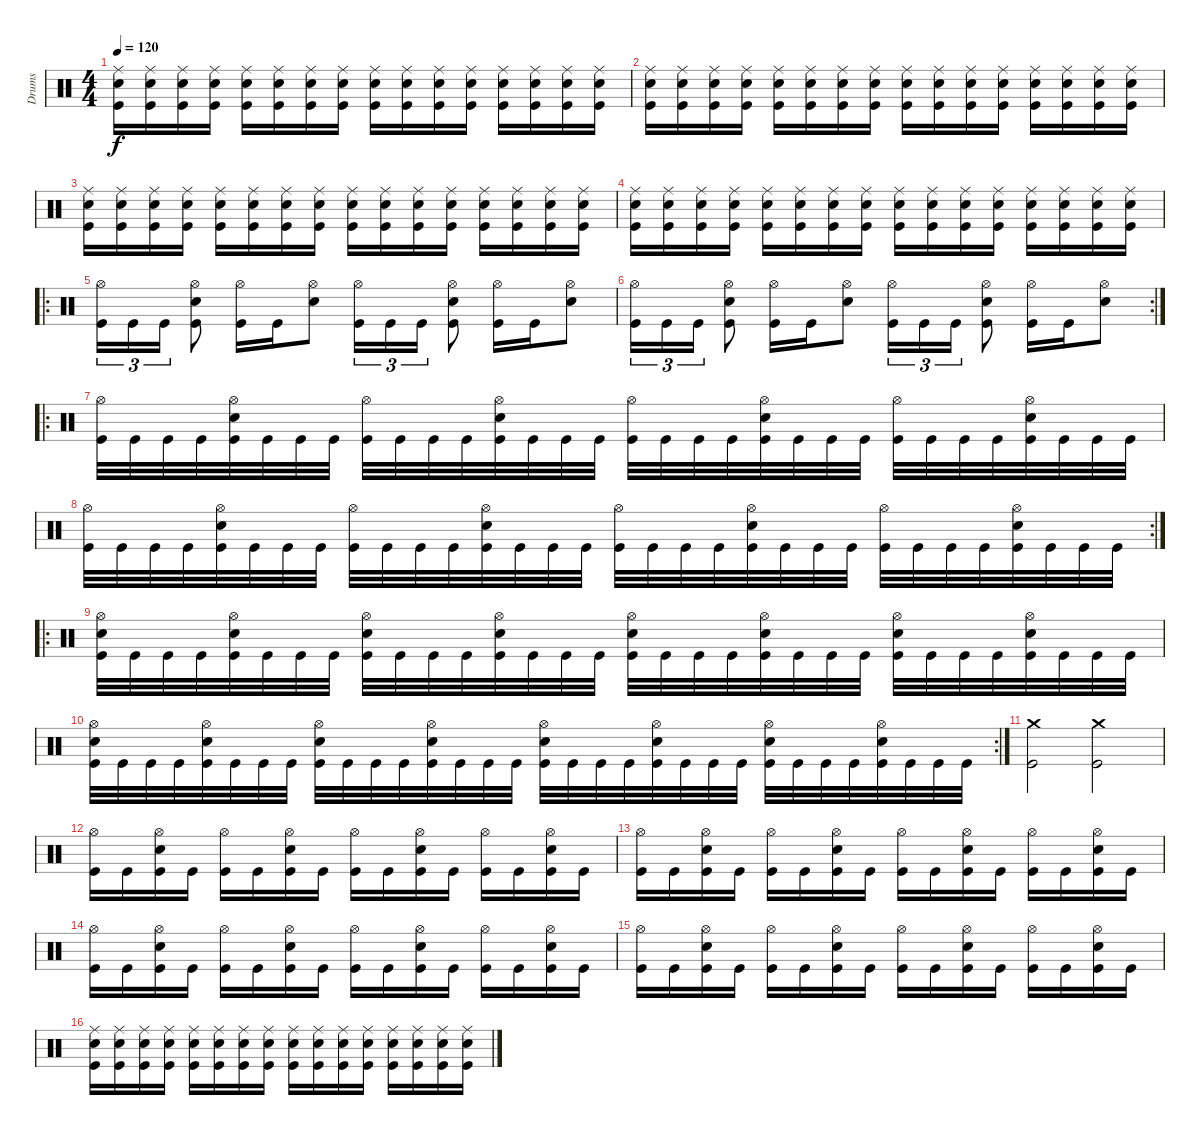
\track ("Drums" "Drums") {instrument percussion}
\staff {score}
\articulation defaults
\ts (4 4)
\tempo 120
\clef neutral
\ks c
("Ride (middle)" "Snare (hit) 2" "Kick (hit)").16{dy f} ("Ride (middle)" "Snare (hit) 2" "Kick (hit)").16 ("Ride (middle)" "Snare (hit) 2" "Kick (hit)").16 ("Ride (middle)" "Snare (hit) 2" "Kick (hit)").16 ("Ride (middle)" "Snare (hit) 2" "Kick (hit)").16 ("Ride (middle)" "Snare (hit) 2" "Kick (hit)").16 ("Ride (middle)" "Snare (hit) 2" "Kick (hit)").16 ("Ride (middle)" "Snare (hit) 2" "Kick (hit)").16 ("Ride (middle)" "Snare (hit) 2" "Kick (hit)").16 ("Ride (middle)" "Snare (hit) 2" "Kick (hit)").16 ("Ride (middle)" "Snare (hit) 2" "Kick (hit)").16 ("Ride (middle)" "Snare (hit) 2" "Kick (hit)").16 ("Ride (middle)" "Snare (hit) 2" "Kick (hit)").16 ("Ride (middle)" "Snare (hit) 2" "Kick (hit)").16 ("Ride (middle)" "Snare (hit) 2" "Kick (hit)").16 ("Ride (middle)" "Snare (hit) 2" "Kick (hit)").16 |
("Ride (middle)" "Snare (hit) 2" "Kick (hit)").16 ("Ride (middle)" "Snare (hit) 2" "Kick (hit)").16 ("Ride (middle)" "Snare (hit) 2" "Kick (hit)").16 ("Ride (middle)" "Snare (hit) 2" "Kick (hit)").16 ("Ride (middle)" "Snare (hit) 2" "Kick (hit)").16 ("Ride (middle)" "Snare (hit) 2" "Kick (hit)").16 ("Ride (middle)" "Snare (hit) 2" "Kick (hit)").16 ("Ride (middle)" "Snare (hit) 2" "Kick (hit)").16 ("Ride (middle)" "Snare (hit) 2" "Kick (hit)").16 ("Ride (middle)" "Snare (hit) 2" "Kick (hit)").16 ("Ride (middle)" "Snare (hit) 2" "Kick (hit)").16 ("Ride (middle)" "Snare (hit) 2" "Kick (hit)").16 ("Ride (middle)" "Snare (hit) 2" "Kick (hit)").16 ("Ride (middle)" "Snare (hit) 2" "Kick (hit)").16 ("Ride (middle)" "Snare (hit) 2" "Kick (hit)").16 ("Ride (middle)" "Snare (hit) 2" "Kick (hit)").16 |
("Ride (middle)" "Snare (hit) 2" "Kick (hit)").16 ("Ride (middle)" "Snare (hit) 2" "Kick (hit)").16 ("Ride (middle)" "Snare (hit) 2" "Kick (hit)").16 ("Ride (middle)" "Snare (hit) 2" "Kick (hit)").16 ("Ride (middle)" "Snare (hit) 2" "Kick (hit)").16 ("Ride (middle)" "Snare (hit) 2" "Kick (hit)").16 ("Ride (middle)" "Snare (hit) 2" "Kick (hit)").16 ("Ride (middle)" "Snare (hit) 2" "Kick (hit)").16 ("Ride (middle)" "Snare (hit) 2" "Kick (hit)").16 ("Ride (middle)" "Snare (hit) 2" "Kick (hit)").16 ("Ride (middle)" "Snare (hit) 2" "Kick (hit)").16 ("Ride (middle)" "Snare (hit) 2" "Kick (hit)").16 ("Ride (middle)" "Snare (hit) 2" "Kick (hit)").16 ("Ride (middle)" "Snare (hit) 2" "Kick (hit)").16 ("Ride (middle)" "Snare (hit) 2" "Kick (hit)").16 ("Ride (middle)" "Snare (hit) 2" "Kick (hit)").16 |
("Ride (middle)" "Snare (hit) 2" "Kick (hit)").16 ("Ride (middle)" "Snare (hit) 2" "Kick (hit)").16 ("Ride (middle)" "Snare (hit) 2" "Kick (hit)").16 ("Ride (middle)" "Snare (hit) 2" "Kick (hit)").16 ("Ride (middle)" "Snare (hit) 2" "Kick (hit)").16 ("Ride (middle)" "Snare (hit) 2" "Kick (hit)").16 ("Ride (middle)" "Snare (hit) 2" "Kick (hit)").16 ("Ride (middle)" "Snare (hit) 2" "Kick (hit)").16 ("Ride (middle)" "Snare (hit) 2" "Kick (hit)").16 ("Ride (middle)" "Snare (hit) 2" "Kick (hit)").16 ("Ride (middle)" "Snare (hit) 2" "Kick (hit)").16 ("Ride (middle)" "Snare (hit) 2" "Kick (hit)").16 ("Ride (middle)" "Snare (hit) 2" "Kick (hit)").16 ("Ride (middle)" "Snare (hit) 2" "Kick (hit)").16 ("Ride (middle)" "Snare (hit) 2" "Kick (hit)").16 ("Ride (middle)" "Snare (hit) 2" "Kick (hit)").16 |
\ro
("Hi-Hat (open)" "Kick (hit)").16{tu (3 2)} "Kick (hit)".16{tu (3 2)} "Kick (hit)".16{tu (3 2)} ("Hi-Hat (open)" "Snare (hit) 2" "Kick (hit)").8 ("Hi-Hat (open)" "Kick (hit)").16 "Kick (hit)".16 ("Hi-Hat (open)" "Snare (hit) 2").8 ("Hi-Hat (open)" "Kick (hit)").16{tu (3 2)} "Kick (hit)".16{tu (3 2)} "Kick (hit)".16{tu (3 2)} ("Hi-Hat (open)" "Snare (hit) 2" "Kick (hit)").8 ("Hi-Hat (open)" "Kick (hit)").16 "Kick (hit)".16 ("Hi-Hat (open)" "Snare (hit) 2").8 |
\rc 2
("Hi-Hat (open)" "Kick (hit)").16{tu (3 2)} "Kick (hit)".16{tu (3 2)} "Kick (hit)".16{tu (3 2)} ("Hi-Hat (open)" "Snare (hit) 2" "Kick (hit)").8 ("Hi-Hat (open)" "Kick (hit)").16 "Kick (hit)".16 ("Hi-Hat (open)" "Snare (hit) 2").8 ("Hi-Hat (open)" "Kick (hit)").16{tu (3 2)} "Kick (hit)".16{tu (3 2)} "Kick (hit)".16{tu (3 2)} ("Hi-Hat (open)" "Snare (hit) 2" "Kick (hit)").8 ("Hi-Hat (open)" "Kick (hit)").16 "Kick (hit)".16 ("Hi-Hat (open)" "Snare (hit) 2").8 |
\ro
("Hi-Hat (open)" "Kick (hit)").32 "Kick (hit)".32 "Kick (hit)".32 "Kick (hit)".32 ("Hi-Hat (open)" "Snare (hit) 2" "Kick (hit)").32 "Kick (hit)".32 "Kick (hit)".32 "Kick (hit)".32 ("Hi-Hat (open)" "Kick (hit)").32 "Kick (hit)".32 "Kick (hit)".32 "Kick (hit)".32 ("Hi-Hat (open)" "Snare (hit) 2" "Kick (hit)").32 "Kick (hit)".32 "Kick (hit)".32 "Kick (hit)".32 ("Hi-Hat (open)" "Kick (hit)").32 "Kick (hit)".32 "Kick (hit)".32 "Kick (hit)".32 ("Hi-Hat (open)" "Snare (hit) 2" "Kick (hit)").32 "Kick (hit)".32 "Kick (hit)".32 "Kick (hit)".32 ("Hi-Hat (open)" "Kick (hit)").32 "Kick (hit)".32 "Kick (hit)".32 "Kick (hit)".32 ("Hi-Hat (open)" "Snare (hit) 2" "Kick (hit)").32 "Kick (hit)".32 "Kick (hit)".32 "Kick (hit)".32 |
\rc 2
("Hi-Hat (open)" "Kick (hit)").32 "Kick (hit)".32 "Kick (hit)".32 "Kick (hit)".32 ("Hi-Hat (open)" "Snare (hit) 2" "Kick (hit)").32 "Kick (hit)".32 "Kick (hit)".32 "Kick (hit)".32 ("Hi-Hat (open)" "Kick (hit)").32 "Kick (hit)".32 "Kick (hit)".32 "Kick (hit)".32 ("Hi-Hat (open)" "Snare (hit) 2" "Kick (hit)").32 "Kick (hit)".32 "Kick (hit)".32 "Kick (hit)".32 ("Hi-Hat (open)" "Kick (hit)").32 "Kick (hit)".32 "Kick (hit)".32 "Kick (hit)".32 ("Hi-Hat (open)" "Snare (hit) 2" "Kick (hit)").32 "Kick (hit)".32 "Kick (hit)".32 "Kick (hit)".32 ("Hi-Hat (open)" "Kick (hit)").32 "Kick (hit)".32 "Kick (hit)".32 "Kick (hit)".32 ("Hi-Hat (open)" "Snare (hit) 2" "Kick (hit)").32 "Kick (hit)".32 "Kick (hit)".32 "Kick (hit)".32 |
\ro
("Hi-Hat (open)" "Snare (hit) 2" "Kick (hit)").32 "Kick (hit)".32 "Kick (hit)".32 "Kick (hit)".32 ("Hi-Hat (open)" "Snare (hit) 2" "Kick (hit)").32 "Kick (hit)".32 "Kick (hit)".32 "Kick (hit)".32 ("Hi-Hat (open)" "Snare (hit) 2" "Kick (hit)").32 "Kick (hit)".32 "Kick (hit)".32 "Kick (hit)".32 ("Hi-Hat (open)" "Snare (hit) 2" "Kick (hit)").32 "Kick (hit)".32 "Kick (hit)".32 "Kick (hit)".32 ("Hi-Hat (open)" "Snare (hit) 2" "Kick (hit)").32 "Kick (hit)".32 "Kick (hit)".32 "Kick (hit)".32 ("Hi-Hat (open)" "Snare (hit) 2" "Kick (hit)").32 "Kick (hit)".32 "Kick (hit)".32 "Kick (hit)".32 ("Hi-Hat (open)" "Snare (hit) 2" "Kick (hit)").32 "Kick (hit)".32 "Kick (hit)".32 "Kick (hit)".32 ("Hi-Hat (open)" "Snare (hit) 2" "Kick (hit)").32 "Kick (hit)".32 "Kick (hit)".32 "Kick (hit)".32 |
\rc 2
("Hi-Hat (open)" "Snare (hit) 2" "Kick (hit)").32 "Kick (hit)".32 "Kick (hit)".32 "Kick (hit)".32 ("Hi-Hat (open)" "Snare (hit) 2" "Kick (hit)").32 "Kick (hit)".32 "Kick (hit)".32 "Kick (hit)".32 ("Hi-Hat (open)" "Snare (hit) 2" "Kick (hit)").32 "Kick (hit)".32 "Kick (hit)".32 "Kick (hit)".32 ("Hi-Hat (open)" "Snare (hit) 2" "Kick (hit)").32 "Kick (hit)".32 "Kick (hit)".32 "Kick (hit)".32 ("Hi-Hat (open)" "Snare (hit) 2" "Kick (hit)").32 "Kick (hit)".32 "Kick (hit)".32 "Kick (hit)".32 ("Hi-Hat (open)" "Snare (hit) 2" "Kick (hit)").32 "Kick (hit)".32 "Kick (hit)".32 "Kick (hit)".32 ("Hi-Hat (open)" "Snare (hit) 2" "Kick (hit)").32 "Kick (hit)".32 "Kick (hit)".32 "Kick (hit)".32 ("Hi-Hat (open)" "Snare (hit) 2" "Kick (hit)").32 "Kick (hit)".32 "Kick (hit)".32 "Kick (hit)".32 |
("Crash medium (hit)" "Kick (hit)").2 ("Crash medium (hit)" "Kick (hit)").2 |
("Hi-Hat (open)" "Kick (hit)").16 "Kick (hit)".16 ("Hi-Hat (open)" "Snare (hit) 2" "Kick (hit)").16 "Kick (hit)".16 ("Hi-Hat (open)" "Kick (hit)").16 "Kick (hit)".16 ("Hi-Hat (open)" "Snare (hit) 2" "Kick (hit)").16 "Kick (hit)".16 ("Hi-Hat (open)" "Kick (hit)").16 "Kick (hit)".16 ("Hi-Hat (open)" "Snare (hit) 2" "Kick (hit)").16 "Kick (hit)".16 ("Hi-Hat (open)" "Kick (hit)").16 "Kick (hit)".16 ("Hi-Hat (open)" "Snare (hit) 2" "Kick (hit)").16 "Kick (hit)".16 |
("Hi-Hat (open)" "Kick (hit)").16 "Kick (hit)".16 ("Hi-Hat (open)" "Snare (hit) 2" "Kick (hit)").16 "Kick (hit)".16 ("Hi-Hat (open)" "Kick (hit)").16 "Kick (hit)".16 ("Hi-Hat (open)" "Snare (hit) 2" "Kick (hit)").16 "Kick (hit)".16 ("Hi-Hat (open)" "Kick (hit)").16 "Kick (hit)".16 ("Hi-Hat (open)" "Snare (hit) 2" "Kick (hit)").16 "Kick (hit)".16 ("Hi-Hat (open)" "Kick (hit)").16 "Kick (hit)".16 ("Hi-Hat (open)" "Snare (hit) 2" "Kick (hit)").16 "Kick (hit)".16 |
("Hi-Hat (open)" "Kick (hit)").16 "Kick (hit)".16 ("Hi-Hat (open)" "Snare (hit) 2" "Kick (hit)").16 "Kick (hit)".16 ("Hi-Hat (open)" "Kick (hit)").16 "Kick (hit)".16 ("Hi-Hat (open)" "Snare (hit) 2" "Kick (hit)").16 "Kick (hit)".16 ("Hi-Hat (open)" "Kick (hit)").16 "Kick (hit)".16 ("Hi-Hat (open)" "Snare (hit) 2" "Kick (hit)").16 "Kick (hit)".16 ("Hi-Hat (open)" "Kick (hit)").16 "Kick (hit)".16 ("Hi-Hat (open)" "Snare (hit) 2" "Kick (hit)").16 "Kick (hit)".16 |
("Hi-Hat (open)" "Kick (hit)").16 "Kick (hit)".16 ("Hi-Hat (open)" "Snare (hit) 2" "Kick (hit)").16 "Kick (hit)".16 ("Hi-Hat (open)" "Kick (hit)").16 "Kick (hit)".16 ("Hi-Hat (open)" "Snare (hit) 2" "Kick (hit)").16 "Kick (hit)".16 ("Hi-Hat (open)" "Kick (hit)").16 "Kick (hit)".16 ("Hi-Hat (open)" "Snare (hit) 2" "Kick (hit)").16 "Kick (hit)".16 ("Hi-Hat (open)" "Kick (hit)").16 "Kick (hit)".16 ("Hi-Hat (open)" "Snare (hit) 2" "Kick (hit)").16 "Kick (hit)".16 |
("Ride (middle)" "Snare (hit) 2" "Kick (hit)").16 ("Ride (middle)" "Snare (hit) 2" "Kick (hit)").16 ("Ride (middle)" "Snare (hit) 2" "Kick (hit)").16 ("Ride (middle)" "Snare (hit) 2" "Kick (hit)").16 ("Ride (middle)" "Snare (hit) 2" "Kick (hit)").16 ("Ride (middle)" "Snare (hit) 2" "Kick (hit)").16 ("Ride (middle)" "Snare (hit) 2" "Kick (hit)").16 ("Ride (middle)" "Snare (hit) 2" "Kick (hit)").16 ("Ride (middle)" "Snare (hit) 2" "Kick (hit)").16 ("Ride (middle)" "Snare (hit) 2" "Kick (hit)").16 ("Ride (middle)" "Snare (hit) 2" "Kick (hit)").16 ("Ride (middle)" "Snare (hit) 2" "Kick (hit)").16 ("Ride (middle)" "Snare (hit) 2" "Kick (hit)").16 ("Ride (middle)" "Snare (hit) 2" "Kick (hit)").16 ("Ride (middle)" "Snare (hit) 2" "Kick (hit)").16 ("Ride (middle)" "Snare (hit) 2" "Kick (hit)").16
